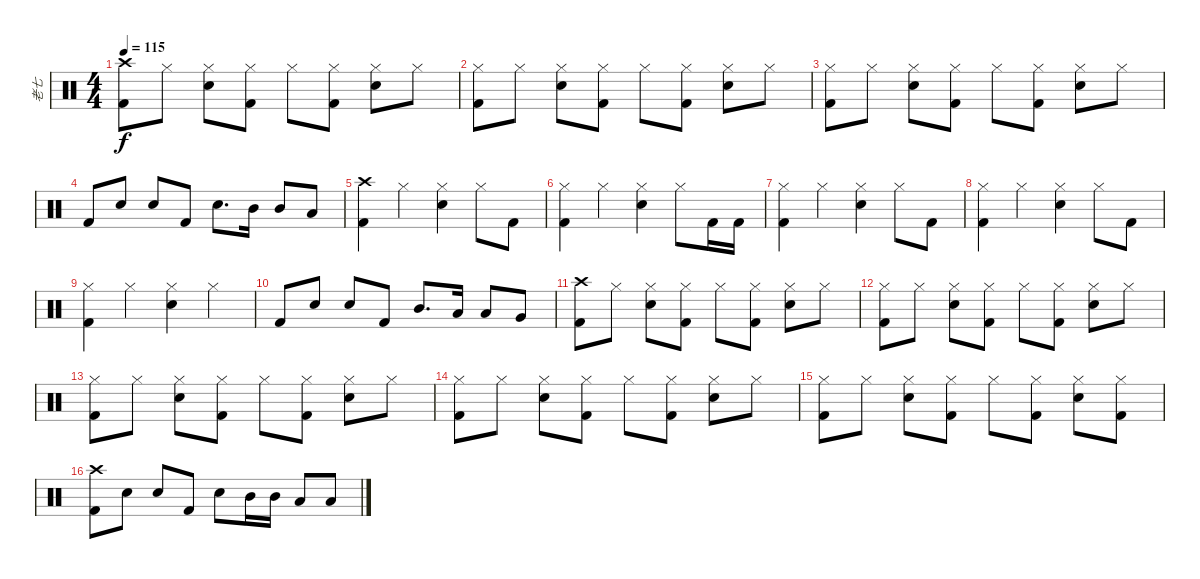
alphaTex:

\track ("老七" "老七") {instrument percussion}
\staff {score}
\articulation defaults
\ts (4 4)
\tempo 115
\clef neutral
\ks c
("Crash high (hit)" "Kick (hit) 2").8{dy f} "Hi-Hat (closed)".8 ("Hi-Hat (closed)" "Electric Snare (hit)").8 ("Hi-Hat (closed)" "Kick (hit) 2").8 "Hi-Hat (closed)".8 ("Hi-Hat (closed)" "Kick (hit) 2").8 ("Hi-Hat (closed)" "Electric Snare (hit)").8 "Hi-Hat (closed)".8 |
("Hi-Hat (closed)" "Kick (hit) 2").8 "Hi-Hat (closed)".8 ("Hi-Hat (closed)" "Electric Snare (hit)").8 ("Hi-Hat (closed)" "Kick (hit) 2").8 "Hi-Hat (closed)".8 ("Hi-Hat (closed)" "Kick (hit) 2").8 ("Hi-Hat (closed)" "Electric Snare (hit)").8 "Hi-Hat (closed)".8 |
("Hi-Hat (closed)" "Kick (hit) 2").8 "Hi-Hat (closed)".8 ("Hi-Hat (closed)" "Electric Snare (hit)").8 ("Hi-Hat (closed)" "Kick (hit) 2").8 "Hi-Hat (closed)".8 ("Hi-Hat (closed)" "Kick (hit) 2").8 ("Hi-Hat (closed)" "Electric Snare (hit)").8 "Hi-Hat (closed)".8 |
"Kick (hit) 2".8 "Electric Snare (hit)".8 "Electric Snare (hit)".8 "Kick (hit) 2".8 "Electric Snare (hit)".8{d} "Mid Tom (hit)".16 "Mid Tom (hit)".8 "Low Tom (hit)".8 |
("Crash high (hit)" "Kick (hit) 2").4 "Hi-Hat (closed)".4 ("Hi-Hat (closed)" "Electric Snare (hit)").4 "Hi-Hat (closed)".8 "Kick (hit) 2".8 |
("Hi-Hat (closed)" "Kick (hit) 2").4 "Hi-Hat (closed)".4 ("Hi-Hat (closed)" "Electric Snare (hit)").4 "Hi-Hat (closed)".8 "Kick (hit) 2".16 "Kick (hit) 2".16 |
("Hi-Hat (closed)" "Kick (hit) 2").4 "Hi-Hat (closed)".4 ("Hi-Hat (closed)" "Electric Snare (hit)").4 "Hi-Hat (closed)".8 "Kick (hit) 2".8 |
("Hi-Hat (closed)" "Kick (hit) 2").4 "Hi-Hat (closed)".4 ("Hi-Hat (closed)" "Electric Snare (hit)").4 "Hi-Hat (closed)".8 "Kick (hit) 2".8 |
("Hi-Hat (closed)" "Kick (hit) 2").4 "Hi-Hat (closed)".4 ("Hi-Hat (closed)" "Electric Snare (hit)").4 "Hi-Hat (closed)".4 |
"Kick (hit) 2".8 "Electric Snare (hit)".8 "Electric Snare (hit)".8 "Kick (hit) 2".8 "Mid Tom (hit)".8{d} "Low Tom (hit)".16 "Low Tom (hit)".8 "Very Low Tom (hit)".8 |
("Crash high (hit)" "Kick (hit) 2").8 "Hi-Hat (closed)".8 ("Hi-Hat (closed)" "Electric Snare (hit)").8 ("Hi-Hat (closed)" "Kick (hit) 2").8 "Hi-Hat (closed)".8 ("Hi-Hat (closed)" "Kick (hit) 2").8 ("Hi-Hat (closed)" "Electric Snare (hit)").8 "Hi-Hat (closed)".8 |
("Hi-Hat (closed)" "Kick (hit) 2").8 "Hi-Hat (closed)".8 ("Hi-Hat (closed)" "Electric Snare (hit)").8 ("Hi-Hat (closed)" "Kick (hit) 2").8 "Hi-Hat (closed)".8 ("Hi-Hat (closed)" "Kick (hit) 2").8 ("Hi-Hat (closed)" "Electric Snare (hit)").8 "Hi-Hat (closed)".8 |
("Hi-Hat (closed)" "Kick (hit) 2").8 "Hi-Hat (closed)".8 ("Hi-Hat (closed)" "Electric Snare (hit)").8 ("Hi-Hat (closed)" "Kick (hit) 2").8 "Hi-Hat (closed)".8 ("Hi-Hat (closed)" "Kick (hit) 2").8 ("Hi-Hat (closed)" "Electric Snare (hit)").8 "Hi-Hat (closed)".8 |
("Hi-Hat (closed)" "Kick (hit) 2").8 "Hi-Hat (closed)".8 ("Hi-Hat (closed)" "Electric Snare (hit)").8 ("Hi-Hat (closed)" "Kick (hit) 2").8 "Hi-Hat (closed)".8 ("Hi-Hat (closed)" "Kick (hit) 2").8 ("Hi-Hat (closed)" "Electric Snare (hit)").8 "Hi-Hat (closed)".8 |
("Hi-Hat (closed)" "Kick (hit) 2").8 "Hi-Hat (closed)".8 ("Hi-Hat (closed)" "Electric Snare (hit)").8 ("Hi-Hat (closed)" "Kick (hit) 2").8 "Hi-Hat (closed)".8 ("Hi-Hat (closed)" "Kick (hit) 2").8 ("Hi-Hat (closed)" "Electric Snare (hit)").8 ("Hi-Hat (closed)" "Kick (hit) 2").8 |
("Crash high (hit)" "Kick (hit) 2").8 "Electric Snare (hit)".8 "Electric Snare (hit)".8 "Kick (hit) 2".8 "Electric Snare (hit)".8 "Mid Tom (hit)".16 "Mid Tom (hit)".16 "Low Tom (hit)".8 "Low Tom (hit)".8
